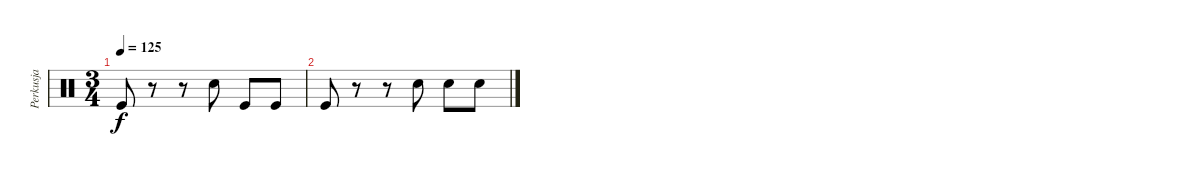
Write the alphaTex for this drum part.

\track ("Perkusja" "Perkusja") {instrument percussion}
\staff {score}
\articulation defaults
\ts (3 4)
\tempo 125
\clef neutral
\ks c "Kick (hit)".8{dy f}
r.8 r.8 "Electric Snare (hit)".8 "Kick (hit)".8 "Kick (hit)".8 |
"Kick (hit)".8 r.8 r.8 "Electric Snare (hit)".8 "Snare (hit) 2".8 "Snare (hit) 2".8
